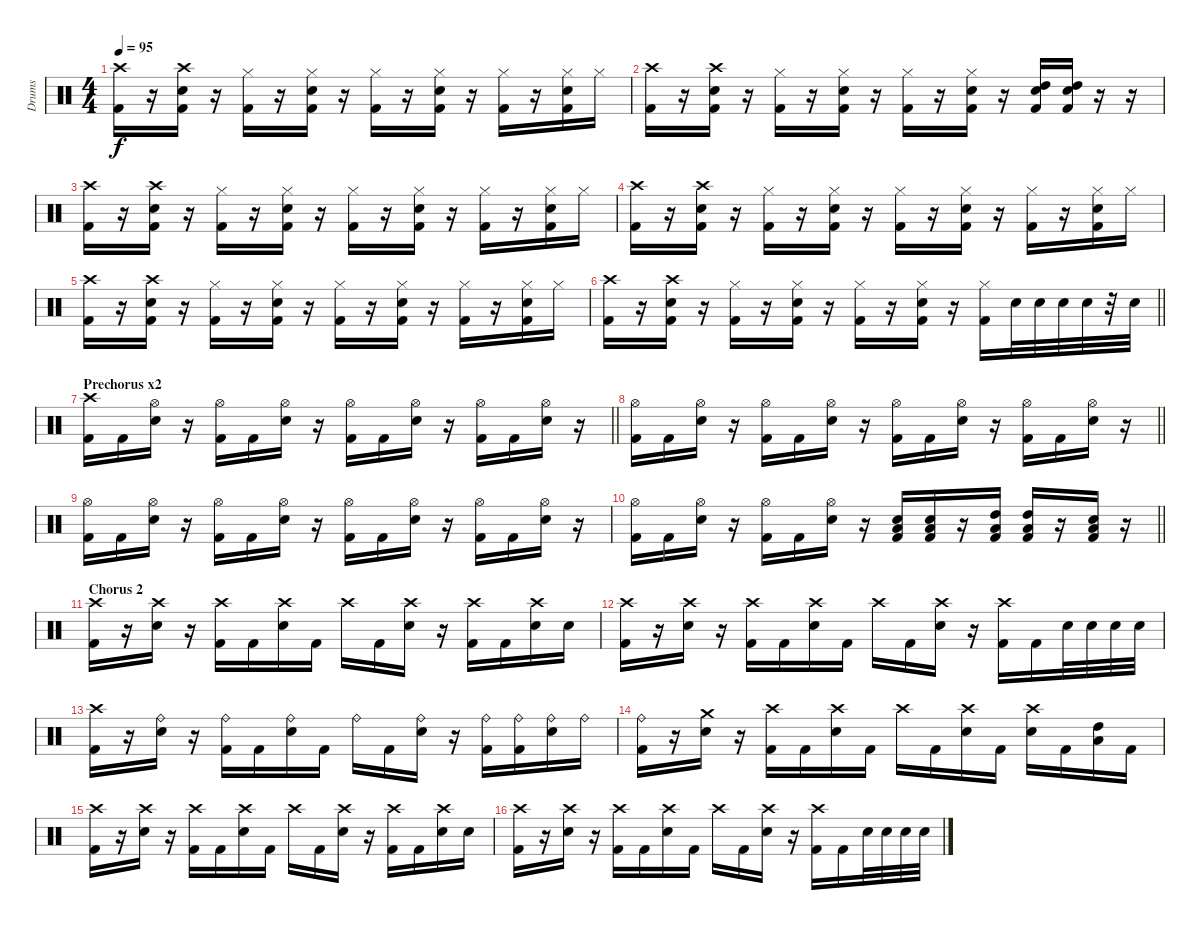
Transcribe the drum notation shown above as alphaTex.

\track ("Drums" "Drums") {instrument percussion}
\staff {score}
\articulation defaults
\ts (4 4)
\tempo 95
\clef neutral
\ks c
("Crash high (hit)" "Kick (hit) 2").16{dy f} r.16 ("Crash high (hit)" "Electric Snare (hit)" "Kick (hit) 2").16 r.16 ("Hi-Hat (closed)" "Kick (hit) 2").16 r.16 ("Hi-Hat (closed)" "Electric Snare (hit)" "Kick (hit) 2").16 r.16 ("Hi-Hat (closed)" "Kick (hit) 2").16 r.16 ("Hi-Hat (closed)" "Electric Snare (hit)" "Kick (hit) 2").16 r.16 ("Hi-Hat (closed)" "Kick (hit) 2").16 r.16 ("Hi-Hat (closed)" "Electric Snare (hit)" "Kick (hit) 2").16 "Hi-Hat (closed)".16 |
("Crash high (hit)" "Kick (hit) 2").16 r.16 ("Crash high (hit)" "Electric Snare (hit)" "Kick (hit) 2").16 r.16 ("Hi-Hat (closed)" "Kick (hit) 2").16 r.16 ("Hi-Hat (closed)" "Electric Snare (hit)" "Kick (hit) 2").16 r.16 ("Hi-Hat (closed)" "Kick (hit) 2").16 r.16 ("Hi-Hat (closed)" "Electric Snare (hit)" "Kick (hit) 2").16 r.16 ("High Tom (hit)" "Electric Snare (hit)" "Kick (hit) 2").16 ("High Tom (hit)" "Electric Snare (hit)" "Kick (hit) 2").16 r.16 r.16 |
("Crash high (hit)" "Kick (hit) 2").16 r.16 ("Crash high (hit)" "Electric Snare (hit)" "Kick (hit) 2").16 r.16 ("Hi-Hat (closed)" "Kick (hit) 2").16 r.16 ("Hi-Hat (closed)" "Electric Snare (hit)" "Kick (hit) 2").16 r.16 ("Hi-Hat (closed)" "Kick (hit) 2").16 r.16 ("Hi-Hat (closed)" "Electric Snare (hit)" "Kick (hit) 2").16 r.16 ("Hi-Hat (closed)" "Kick (hit) 2").16 r.16 ("Hi-Hat (closed)" "Electric Snare (hit)" "Kick (hit) 2").16 "Hi-Hat (closed)".16 |
("Crash high (hit)" "Kick (hit) 2").16 r.16 ("Crash high (hit)" "Electric Snare (hit)" "Kick (hit) 2").16 r.16 ("Hi-Hat (closed)" "Kick (hit) 2").16 r.16 ("Hi-Hat (closed)" "Electric Snare (hit)" "Kick (hit) 2").16 r.16 ("Hi-Hat (closed)" "Kick (hit) 2").16 r.16 ("Hi-Hat (closed)" "Electric Snare (hit)" "Kick (hit) 2").16 r.16 ("Hi-Hat (closed)" "Kick (hit) 2").16 r.16 ("Hi-Hat (closed)" "Electric Snare (hit)" "Kick (hit) 2").16 "Hi-Hat (closed)".16 |
("Crash high (hit)" "Kick (hit) 2").16 r.16 ("Crash high (hit)" "Electric Snare (hit)" "Kick (hit) 2").16 r.16 ("Hi-Hat (closed)" "Kick (hit) 2").16 r.16 ("Hi-Hat (closed)" "Electric Snare (hit)" "Kick (hit) 2").16 r.16 ("Hi-Hat (closed)" "Kick (hit) 2").16 r.16 ("Hi-Hat (closed)" "Electric Snare (hit)" "Kick (hit) 2").16 r.16 ("Hi-Hat (closed)" "Kick (hit) 2").16 r.16 ("Hi-Hat (closed)" "Electric Snare (hit)" "Kick (hit) 2").16 "Hi-Hat (closed)".16 |
\barLineRight lightlight
("Crash high (hit)" "Kick (hit) 2").16 r.16 ("Crash high (hit)" "Electric Snare (hit)" "Kick (hit) 2").16 r.16 ("Hi-Hat (closed)" "Kick (hit) 2").16 r.16 ("Hi-Hat (closed)" "Electric Snare (hit)" "Kick (hit) 2").16 r.16 ("Hi-Hat (closed)" "Kick (hit) 2").16 r.16 ("Hi-Hat (closed)" "Electric Snare (hit)" "Kick (hit) 2").16 r.16 ("Hi-Hat (closed)" "Kick (hit) 2").16 "Electric Snare (hit)".32 "Electric Snare (hit)".32 "Electric Snare (hit)".32 "Electric Snare (hit)".32 r.32 "Electric Snare (hit)".32 |
\section ("" "Prechorus x2")
\barLineRight lightlight
("Crash high (hit)" "Kick (hit) 2").16 "Kick (hit) 2".16 ("Hi-Hat (open)" "Electric Snare (hit)").16 r.16 ("Hi-Hat (open)" "Kick (hit) 2").16 "Kick (hit) 2".16 ("Hi-Hat (open)" "Electric Snare (hit)").16 r.16 ("Hi-Hat (open)" "Kick (hit) 2").16 "Kick (hit) 2".16 ("Hi-Hat (open)" "Electric Snare (hit)").16 r.16 ("Hi-Hat (open)" "Kick (hit) 2").16 "Kick (hit) 2".16 ("Hi-Hat (open)" "Electric Snare (hit)").16 r.16 |
\barLineRight lightlight
("Hi-Hat (open)" "Kick (hit) 2").16 "Kick (hit) 2".16 ("Hi-Hat (open)" "Electric Snare (hit)").16 r.16 ("Hi-Hat (open)" "Kick (hit) 2").16 "Kick (hit) 2".16 ("Hi-Hat (open)" "Electric Snare (hit)").16 r.16 ("Hi-Hat (open)" "Kick (hit) 2").16 "Kick (hit) 2".16 ("Hi-Hat (open)" "Electric Snare (hit)").16 r.16 ("Hi-Hat (open)" "Kick (hit) 2").16 "Kick (hit) 2".16 ("Hi-Hat (open)" "Electric Snare (hit)").16 r.16 |
("Hi-Hat (open)" "Kick (hit) 2").16 "Kick (hit) 2".16 ("Hi-Hat (open)" "Electric Snare (hit)").16 r.16 ("Hi-Hat (open)" "Kick (hit) 2").16 "Kick (hit) 2".16 ("Hi-Hat (open)" "Electric Snare (hit)").16 r.16 ("Hi-Hat (open)" "Kick (hit) 2").16 "Kick (hit) 2".16 ("Hi-Hat (open)" "Electric Snare (hit)").16 r.16 ("Hi-Hat (open)" "Kick (hit) 2").16 "Kick (hit) 2".16 ("Hi-Hat (open)" "Electric Snare (hit)").16 r.16 |
\barLineRight lightlight
("Hi-Hat (open)" "Kick (hit) 2").16 "Kick (hit) 2".16 ("Hi-Hat (open)" "Electric Snare (hit)").16 r.16 ("Hi-Hat (open)" "Kick (hit) 2").16 "Kick (hit) 2".16 ("Hi-Hat (open)" "Electric Snare (hit)").16 r.16 ("Electric Snare (hit)" "Low Tom (hit)" "Kick (hit) 2").16 ("Electric Snare (hit)" "Low Tom (hit)" "Kick (hit) 2").16 r.16 ("High Tom (hit)" "Low Tom (hit)" "Kick (hit) 2").16 ("High Tom (hit)" "Low Tom (hit)" "Kick (hit) 2").16 r.16 ("Electric Snare (hit)" "Low Tom (hit)" "Kick (hit) 2").16 r.16 |
\section ("" "Chorus 2")
("Crash high (hit)" "Kick (hit) 2").16 r.16 ("Crash high (hit)" "Electric Snare (hit)").16 r.16 ("Crash high (hit)" "Kick (hit) 2").16 "Kick (hit) 2".16 ("Crash high (hit)" "Electric Snare (hit)").16 "Kick (hit) 2".16 "Crash high (hit)".16 "Kick (hit) 2".16 ("Crash high (hit)" "Electric Snare (hit)").16 r.16 ("Crash high (hit)" "Kick (hit) 2").16 "Kick (hit) 2".16 ("Crash high (hit)" "Electric Snare (hit)").16 "Electric Snare (hit)".16 |
("Crash high (hit)" "Kick (hit) 2").16 r.16 ("Crash high (hit)" "Electric Snare (hit)").16 r.16 ("Crash high (hit)" "Kick (hit) 2").16 "Kick (hit) 2".16 ("Crash high (hit)" "Electric Snare (hit)").16 "Kick (hit) 2".16 "Crash high (hit)".16 "Kick (hit) 2".16 ("Crash high (hit)" "Electric Snare (hit)").16 r.16 ("Crash high (hit)" "Kick (hit) 2").16 "Kick (hit) 2".16 "Electric Snare (hit)".32 "Electric Snare (hit)".32 "Electric Snare (hit)".32 "Electric Snare (hit)".32 |
("Crash high (hit)" "Kick (hit) 2").16 r.16 ("Ride (bell)" "Electric Snare (hit)").16 r.16 ("Ride (bell)" "Kick (hit) 2").16 "Kick (hit) 2".16 ("Ride (bell)" "Electric Snare (hit)").16 "Kick (hit) 2".16 "Ride (bell)".16 "Kick (hit) 2".16 ("Ride (bell)" "Electric Snare (hit)").16 r.16 ("Ride (bell)" "Kick (hit) 2").16 ("Ride (bell)" "Kick (hit) 2").16 ("Ride (bell)" "Electric Snare (hit)").16 "Ride (bell)".16 |
("Ride (bell)" "Kick (hit) 2").16 r.16 ("Crash medium (hit)" "Electric Snare (hit)").16 r.16 ("Crash high (hit)" "Kick (hit) 2").16 "Kick (hit) 2".16 ("Crash high (hit)" "Electric Snare (hit)").16 "Kick (hit) 2".16 "Crash high (hit)".16 "Kick (hit) 2".16 ("Crash high (hit)" "Electric Snare (hit)").16 "Kick (hit) 2".16 ("Crash high (hit)" "Electric Snare (hit)").16 "Kick (hit) 2".16 ("Low Tom (hit)" "High Tom (hit)").16 "Kick (hit) 2".16 |
("Crash high (hit)" "Kick (hit) 2").16 r.16 ("Crash high (hit)" "Electric Snare (hit)").16 r.16 ("Crash high (hit)" "Kick (hit) 2").16 "Kick (hit) 2".16 ("Crash high (hit)" "Electric Snare (hit)").16 "Kick (hit) 2".16 "Crash high (hit)".16 "Kick (hit) 2".16 ("Crash high (hit)" "Electric Snare (hit)").16 r.16 ("Crash high (hit)" "Kick (hit) 2").16 "Kick (hit) 2".16 ("Crash high (hit)" "Electric Snare (hit)").16 "Electric Snare (hit)".16 |
("Crash high (hit)" "Kick (hit) 2").16 r.16 ("Crash high (hit)" "Electric Snare (hit)").16 r.16 ("Crash high (hit)" "Kick (hit) 2").16 "Kick (hit) 2".16 ("Crash high (hit)" "Electric Snare (hit)").16 "Kick (hit) 2".16 "Crash high (hit)".16 "Kick (hit) 2".16 ("Crash high (hit)" "Electric Snare (hit)").16 r.16 ("Crash high (hit)" "Kick (hit) 2").16 "Kick (hit) 2".16 "Electric Snare (hit)".32 "Electric Snare (hit)".32 "Electric Snare (hit)".32 "Electric Snare (hit)".32
